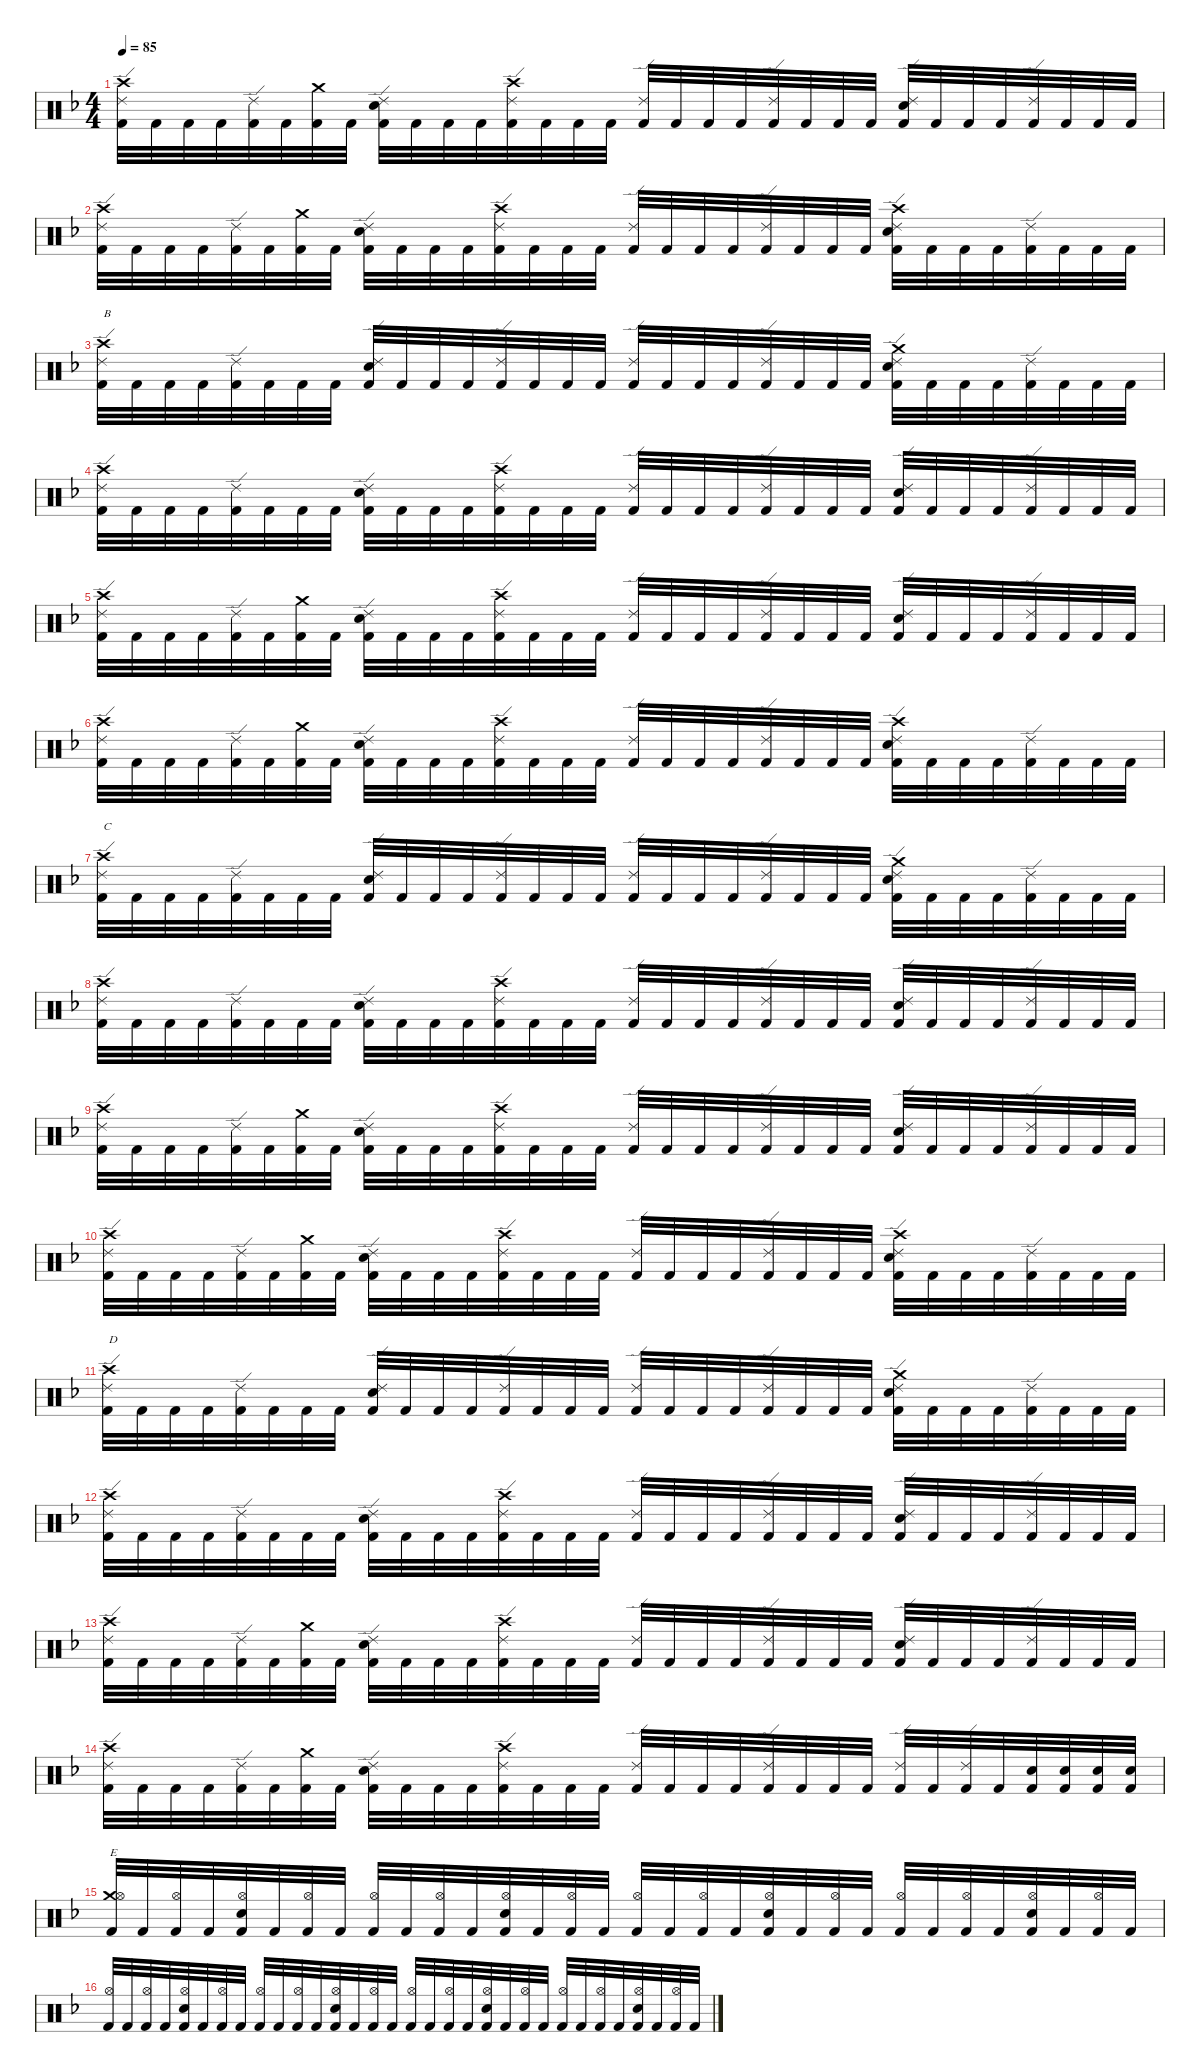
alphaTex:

\defaultSystemsLayout 4
\hideDynamics
\bracketExtendMode nobrackets
\singleTrackTrackNamePolicy hidden
\multiTrackTrackNamePolicy hidden
\firstSystemTrackNameMode fullname
\firstSystemTrackNameOrientation horizontal
\otherSystemsTrackNameOrientation horizontal
\track ("Martin Lopez - Drums" "drm.") {instrument percussion}
\staff {score}
\articulation defaults
\ts (4 4)
\tempo 85
\clef neutral
\ks f
("Crash high (hit)"{acc forcenatural} "Ride (edge) 2"{acc forcenatural} "Kick (hit) 2"{acc forcenatural}).32{dy f beam Down} "Kick (hit) 2"{acc forcenatural}.32{beam Down} "Kick (hit) 2"{acc forcenatural}.32{beam Down} "Kick (hit) 2"{acc forcenatural}.32{beam Down} ("Ride (edge) 2"{acc forcenatural} "Kick (hit) 2"{acc forcenatural}).32{beam Down} "Kick (hit) 2"{acc forcenatural}.32{beam Down} ("Crash medium (hit)"{acc forcenatural} "Kick (hit) 2"{acc forcenatural}).32{beam Down} "Kick (hit) 2"{acc forcenatural}.32{beam Down} ("Ride (edge) 2"{acc forcenatural} "Snare (hit) 2"{acc forcenatural} "Kick (hit) 2"{acc forcenatural}).32{beam Down} "Kick (hit) 2"{acc forcenatural}.32{beam Down} "Kick (hit) 2"{acc forcenatural}.32{beam Down} "Kick (hit) 2"{acc forcenatural}.32{beam Down} ("Crash high (hit)"{acc forcenatural} "Ride (edge) 2"{acc forcenatural} "Kick (hit) 2"{acc forcenatural}).32{beam Down} "Kick (hit) 2"{acc forcenatural}.32{beam Down} "Kick (hit) 2"{acc forcenatural}.32{beam Down} "Kick (hit) 2"{acc forcenatural}.32{beam Down} ("Ride (edge) 2"{acc forcenatural} "Kick (hit) 2"{acc forcenatural}).32{beam Up} "Kick (hit) 2"{acc forcenatural}.32{beam Up} "Kick (hit) 2"{acc forcenatural}.32{beam Up} "Kick (hit) 2"{acc forcenatural}.32{beam Up} ("Ride (edge) 2"{acc forcenatural} "Kick (hit) 2"{acc forcenatural}).32{beam Up} "Kick (hit) 2"{acc forcenatural}.32{beam Up} "Kick (hit) 2"{acc forcenatural}.32{beam Up} "Kick (hit) 2"{acc forcenatural}.32{beam Up} ("Ride (edge) 2"{acc forcenatural} "Snare (hit) 2"{acc forcenatural} "Kick (hit) 2"{acc forcenatural}).32{beam Up} "Kick (hit) 2"{acc forcenatural}.32{beam Up} "Kick (hit) 2"{acc forcenatural}.32{beam Up} "Kick (hit) 2"{acc forcenatural}.32{beam Up} ("Ride (edge) 2"{acc forcenatural} "Kick (hit) 2"{acc forcenatural}).32{beam Up} "Kick (hit) 2"{acc forcenatural}.32{beam Up} "Kick (hit) 2"{acc forcenatural}.32{beam Up} "Kick (hit) 2"{acc forcenatural}.32{beam Up} |
("Crash high (hit)"{acc forcenatural} "Ride (edge) 2"{acc forcenatural} "Kick (hit) 2"{acc forcenatural}).32{beam Down} "Kick (hit) 2"{acc forcenatural}.32{beam Down} "Kick (hit) 2"{acc forcenatural}.32{beam Down} "Kick (hit) 2"{acc forcenatural}.32{beam Down} ("Ride (edge) 2"{acc forcenatural} "Kick (hit) 2"{acc forcenatural}).32{beam Down} "Kick (hit) 2"{acc forcenatural}.32{beam Down} ("Crash medium (hit)"{acc forcenatural} "Kick (hit) 2"{acc forcenatural}).32{beam Down} "Kick (hit) 2"{acc forcenatural}.32{beam Down} ("Ride (edge) 2"{acc forcenatural} "Snare (hit) 2"{acc forcenatural} "Kick (hit) 2"{acc forcenatural}).32{beam Down} "Kick (hit) 2"{acc forcenatural}.32{beam Down} "Kick (hit) 2"{acc forcenatural}.32{beam Down} "Kick (hit) 2"{acc forcenatural}.32{beam Down} ("Crash high (hit)"{acc forcenatural} "Ride (edge) 2"{acc forcenatural} "Kick (hit) 2"{acc forcenatural}).32{beam Down} "Kick (hit) 2"{acc forcenatural}.32{beam Down} "Kick (hit) 2"{acc forcenatural}.32{beam Down} "Kick (hit) 2"{acc forcenatural}.32{beam Down} ("Ride (edge) 2"{acc forcenatural} "Kick (hit) 2"{acc forcenatural}).32{beam Up} "Kick (hit) 2"{acc forcenatural}.32{beam Up} "Kick (hit) 2"{acc forcenatural}.32{beam Up} "Kick (hit) 2"{acc forcenatural}.32{beam Up} ("Ride (edge) 2"{acc forcenatural} "Kick (hit) 2"{acc forcenatural}).32{beam Up} "Kick (hit) 2"{acc forcenatural}.32{beam Up} "Kick (hit) 2"{acc forcenatural}.32{beam Up} "Kick (hit) 2"{acc forcenatural}.32{beam Up} ("Crash high (hit)"{acc forcenatural} "Ride (edge) 2"{acc forcenatural} "Snare (hit) 2"{acc forcenatural} "Kick (hit) 2"{acc forcenatural}).32{beam Down} "Kick (hit) 2"{acc forcenatural}.32{beam Down} "Kick (hit) 2"{acc forcenatural}.32{beam Down} "Kick (hit) 2"{acc forcenatural}.32{beam Down} ("Ride (edge) 2"{acc forcenatural} "Kick (hit) 2"{acc forcenatural}).32{beam Down} "Kick (hit) 2"{acc forcenatural}.32{beam Down} "Kick (hit) 2"{acc forcenatural}.32{beam Down} "Kick (hit) 2"{acc forcenatural}.32{beam Down} |
("Crash high (hit)"{acc forcenatural} "Ride (edge) 2"{acc forcenatural} "Kick (hit) 2"{acc forcenatural}).32{txt "B" beam Down} "Kick (hit) 2"{acc forcenatural}.32{beam Down} "Kick (hit) 2"{acc forcenatural}.32{beam Down} "Kick (hit) 2"{acc forcenatural}.32{beam Down} ("Ride (edge) 2"{acc forcenatural} "Kick (hit) 2"{acc forcenatural}).32{beam Down} "Kick (hit) 2"{acc forcenatural}.32{beam Down} "Kick (hit) 2"{acc forcenatural}.32{beam Down} "Kick (hit) 2"{acc forcenatural}.32{beam Down} ("Ride (edge) 2"{acc forcenatural} "Snare (hit) 2"{acc forcenatural} "Kick (hit) 2"{acc forcenatural}).32{beam Up} "Kick (hit) 2"{acc forcenatural}.32{beam Up} "Kick (hit) 2"{acc forcenatural}.32{beam Up} "Kick (hit) 2"{acc forcenatural}.32{beam Up} ("Ride (edge) 2"{acc forcenatural} "Kick (hit) 2"{acc forcenatural}).32{beam Up} "Kick (hit) 2"{acc forcenatural}.32{beam Up} "Kick (hit) 2"{acc forcenatural}.32{beam Up} "Kick (hit) 2"{acc forcenatural}.32{beam Up} ("Ride (edge) 2"{acc forcenatural} "Kick (hit) 2"{acc forcenatural}).32{beam Up} "Kick (hit) 2"{acc forcenatural}.32{beam Up} "Kick (hit) 2"{acc forcenatural}.32{beam Up} "Kick (hit) 2"{acc forcenatural}.32{beam Up} ("Ride (edge) 2"{acc forcenatural} "Kick (hit) 2"{acc forcenatural}).32{beam Up} "Kick (hit) 2"{acc forcenatural}.32{beam Up} "Kick (hit) 2"{acc forcenatural}.32{beam Up} "Kick (hit) 2"{acc forcenatural}.32{beam Up} ("Crash medium (hit)"{acc forcenatural} "Ride (edge) 2"{acc forcenatural} "Snare (hit) 2"{acc forcenatural} "Kick (hit) 2"{acc forcenatural}).32{beam Down} "Kick (hit) 2"{acc forcenatural}.32{beam Down} "Kick (hit) 2"{acc forcenatural}.32{beam Down} "Kick (hit) 2"{acc forcenatural}.32{beam Down} ("Ride (edge) 2"{acc forcenatural} "Kick (hit) 2"{acc forcenatural}).32{beam Down} "Kick (hit) 2"{acc forcenatural}.32{beam Down} "Kick (hit) 2"{acc forcenatural}.32{beam Down} "Kick (hit) 2"{acc forcenatural}.32{beam Down} |
("Crash high (hit)"{acc forcenatural} "Ride (edge) 2"{acc forcenatural} "Kick (hit) 2"{acc forcenatural}).32{beam Down} "Kick (hit) 2"{acc forcenatural}.32{beam Down} "Kick (hit) 2"{acc forcenatural}.32{beam Down} "Kick (hit) 2"{acc forcenatural}.32{beam Down} ("Ride (edge) 2"{acc forcenatural} "Kick (hit) 2"{acc forcenatural}).32{beam Down} "Kick (hit) 2"{acc forcenatural}.32{beam Down} "Kick (hit) 2"{acc forcenatural}.32{beam Down} "Kick (hit) 2"{acc forcenatural}.32{beam Down} ("Ride (edge) 2"{acc forcenatural} "Snare (hit) 2"{acc forcenatural} "Kick (hit) 2"{acc forcenatural}).32{beam Down} "Kick (hit) 2"{acc forcenatural}.32{beam Down} "Kick (hit) 2"{acc forcenatural}.32{beam Down} "Kick (hit) 2"{acc forcenatural}.32{beam Down} ("Crash high (hit)"{acc forcenatural} "Ride (edge) 2"{acc forcenatural} "Kick (hit) 2"{acc forcenatural}).32{beam Down} "Kick (hit) 2"{acc forcenatural}.32{beam Down} "Kick (hit) 2"{acc forcenatural}.32{beam Down} "Kick (hit) 2"{acc forcenatural}.32{beam Down} ("Ride (edge) 2"{acc forcenatural} "Kick (hit) 2"{acc forcenatural}).32{beam Up} "Kick (hit) 2"{acc forcenatural}.32{beam Up} "Kick (hit) 2"{acc forcenatural}.32{beam Up} "Kick (hit) 2"{acc forcenatural}.32{beam Up} ("Ride (edge) 2"{acc forcenatural} "Kick (hit) 2"{acc forcenatural}).32{beam Up} "Kick (hit) 2"{acc forcenatural}.32{beam Up} "Kick (hit) 2"{acc forcenatural}.32{beam Up} "Kick (hit) 2"{acc forcenatural}.32{beam Up} ("Ride (edge) 2"{acc forcenatural} "Snare (hit) 2"{acc forcenatural} "Kick (hit) 2"{acc forcenatural}).32{beam Up} "Kick (hit) 2"{acc forcenatural}.32{beam Up} "Kick (hit) 2"{acc forcenatural}.32{beam Up} "Kick (hit) 2"{acc forcenatural}.32{beam Up} ("Ride (edge) 2"{acc forcenatural} "Kick (hit) 2"{acc forcenatural}).32{beam Up} "Kick (hit) 2"{acc forcenatural}.32{beam Up} "Kick (hit) 2"{acc forcenatural}.32{beam Up} "Kick (hit) 2"{acc forcenatural}.32{beam Up} |
("Crash high (hit)"{acc forcenatural} "Ride (edge) 2"{acc forcenatural} "Kick (hit) 2"{acc forcenatural}).32{beam Down} "Kick (hit) 2"{acc forcenatural}.32{beam Down} "Kick (hit) 2"{acc forcenatural}.32{beam Down} "Kick (hit) 2"{acc forcenatural}.32{beam Down} ("Ride (edge) 2"{acc forcenatural} "Kick (hit) 2"{acc forcenatural}).32{beam Down} "Kick (hit) 2"{acc forcenatural}.32{beam Down} ("Crash medium (hit)"{acc forcenatural} "Kick (hit) 2"{acc forcenatural}).32{beam Down} "Kick (hit) 2"{acc forcenatural}.32{beam Down} ("Ride (edge) 2"{acc forcenatural} "Snare (hit) 2"{acc forcenatural} "Kick (hit) 2"{acc forcenatural}).32{beam Down} "Kick (hit) 2"{acc forcenatural}.32{beam Down} "Kick (hit) 2"{acc forcenatural}.32{beam Down} "Kick (hit) 2"{acc forcenatural}.32{beam Down} ("Crash high (hit)"{acc forcenatural} "Ride (edge) 2"{acc forcenatural} "Kick (hit) 2"{acc forcenatural}).32{beam Down} "Kick (hit) 2"{acc forcenatural}.32{beam Down} "Kick (hit) 2"{acc forcenatural}.32{beam Down} "Kick (hit) 2"{acc forcenatural}.32{beam Down} ("Ride (edge) 2"{acc forcenatural} "Kick (hit) 2"{acc forcenatural}).32{beam Up} "Kick (hit) 2"{acc forcenatural}.32{beam Up} "Kick (hit) 2"{acc forcenatural}.32{beam Up} "Kick (hit) 2"{acc forcenatural}.32{beam Up} ("Ride (edge) 2"{acc forcenatural} "Kick (hit) 2"{acc forcenatural}).32{beam Up} "Kick (hit) 2"{acc forcenatural}.32{beam Up} "Kick (hit) 2"{acc forcenatural}.32{beam Up} "Kick (hit) 2"{acc forcenatural}.32{beam Up} ("Ride (edge) 2"{acc forcenatural} "Snare (hit) 2"{acc forcenatural} "Kick (hit) 2"{acc forcenatural}).32{beam Up} "Kick (hit) 2"{acc forcenatural}.32{beam Up} "Kick (hit) 2"{acc forcenatural}.32{beam Up} "Kick (hit) 2"{acc forcenatural}.32{beam Up} ("Ride (edge) 2"{acc forcenatural} "Kick (hit) 2"{acc forcenatural}).32{beam Up} "Kick (hit) 2"{acc forcenatural}.32{beam Up} "Kick (hit) 2"{acc forcenatural}.32{beam Up} "Kick (hit) 2"{acc forcenatural}.32{beam Up} |
("Crash high (hit)"{acc forcenatural} "Ride (edge) 2"{acc forcenatural} "Kick (hit) 2"{acc forcenatural}).32{beam Down} "Kick (hit) 2"{acc forcenatural}.32{beam Down} "Kick (hit) 2"{acc forcenatural}.32{beam Down} "Kick (hit) 2"{acc forcenatural}.32{beam Down} ("Ride (edge) 2"{acc forcenatural} "Kick (hit) 2"{acc forcenatural}).32{beam Down} "Kick (hit) 2"{acc forcenatural}.32{beam Down} ("Crash medium (hit)"{acc forcenatural} "Kick (hit) 2"{acc forcenatural}).32{beam Down} "Kick (hit) 2"{acc forcenatural}.32{beam Down} ("Ride (edge) 2"{acc forcenatural} "Snare (hit) 2"{acc forcenatural} "Kick (hit) 2"{acc forcenatural}).32{beam Down} "Kick (hit) 2"{acc forcenatural}.32{beam Down} "Kick (hit) 2"{acc forcenatural}.32{beam Down} "Kick (hit) 2"{acc forcenatural}.32{beam Down} ("Crash high (hit)"{acc forcenatural} "Ride (edge) 2"{acc forcenatural} "Kick (hit) 2"{acc forcenatural}).32{beam Down} "Kick (hit) 2"{acc forcenatural}.32{beam Down} "Kick (hit) 2"{acc forcenatural}.32{beam Down} "Kick (hit) 2"{acc forcenatural}.32{beam Down} ("Ride (edge) 2"{acc forcenatural} "Kick (hit) 2"{acc forcenatural}).32{beam Up} "Kick (hit) 2"{acc forcenatural}.32{beam Up} "Kick (hit) 2"{acc forcenatural}.32{beam Up} "Kick (hit) 2"{acc forcenatural}.32{beam Up} ("Ride (edge) 2"{acc forcenatural} "Kick (hit) 2"{acc forcenatural}).32{beam Up} "Kick (hit) 2"{acc forcenatural}.32{beam Up} "Kick (hit) 2"{acc forcenatural}.32{beam Up} "Kick (hit) 2"{acc forcenatural}.32{beam Up} ("Crash high (hit)"{acc forcenatural} "Ride (edge) 2"{acc forcenatural} "Snare (hit) 2"{acc forcenatural} "Kick (hit) 2"{acc forcenatural}).32{beam Down} "Kick (hit) 2"{acc forcenatural}.32{beam Down} "Kick (hit) 2"{acc forcenatural}.32{beam Down} "Kick (hit) 2"{acc forcenatural}.32{beam Down} ("Ride (edge) 2"{acc forcenatural} "Kick (hit) 2"{acc forcenatural}).32{beam Down} "Kick (hit) 2"{acc forcenatural}.32{beam Down} "Kick (hit) 2"{acc forcenatural}.32{beam Down} "Kick (hit) 2"{acc forcenatural}.32{beam Down} |
("Crash high (hit)"{acc forcenatural} "Ride (edge) 2"{acc forcenatural} "Kick (hit) 2"{acc forcenatural}).32{txt "C" beam Down} "Kick (hit) 2"{acc forcenatural}.32{beam Down} "Kick (hit) 2"{acc forcenatural}.32{beam Down} "Kick (hit) 2"{acc forcenatural}.32{beam Down} ("Ride (edge) 2"{acc forcenatural} "Kick (hit) 2"{acc forcenatural}).32{beam Down} "Kick (hit) 2"{acc forcenatural}.32{beam Down} "Kick (hit) 2"{acc forcenatural}.32{beam Down} "Kick (hit) 2"{acc forcenatural}.32{beam Down} ("Ride (edge) 2"{acc forcenatural} "Snare (hit) 2"{acc forcenatural} "Kick (hit) 2"{acc forcenatural}).32{beam Up} "Kick (hit) 2"{acc forcenatural}.32{beam Up} "Kick (hit) 2"{acc forcenatural}.32{beam Up} "Kick (hit) 2"{acc forcenatural}.32{beam Up} ("Ride (edge) 2"{acc forcenatural} "Kick (hit) 2"{acc forcenatural}).32{beam Up} "Kick (hit) 2"{acc forcenatural}.32{beam Up} "Kick (hit) 2"{acc forcenatural}.32{beam Up} "Kick (hit) 2"{acc forcenatural}.32{beam Up} ("Ride (edge) 2"{acc forcenatural} "Kick (hit) 2"{acc forcenatural}).32{beam Up} "Kick (hit) 2"{acc forcenatural}.32{beam Up} "Kick (hit) 2"{acc forcenatural}.32{beam Up} "Kick (hit) 2"{acc forcenatural}.32{beam Up} ("Ride (edge) 2"{acc forcenatural} "Kick (hit) 2"{acc forcenatural}).32{beam Up} "Kick (hit) 2"{acc forcenatural}.32{beam Up} "Kick (hit) 2"{acc forcenatural}.32{beam Up} "Kick (hit) 2"{acc forcenatural}.32{beam Up} ("Crash medium (hit)"{acc forcenatural} "Ride (edge) 2"{acc forcenatural} "Snare (hit) 2"{acc forcenatural} "Kick (hit) 2"{acc forcenatural}).32{beam Down} "Kick (hit) 2"{acc forcenatural}.32{beam Down} "Kick (hit) 2"{acc forcenatural}.32{beam Down} "Kick (hit) 2"{acc forcenatural}.32{beam Down} ("Ride (edge) 2"{acc forcenatural} "Kick (hit) 2"{acc forcenatural}).32{beam Down} "Kick (hit) 2"{acc forcenatural}.32{beam Down} "Kick (hit) 2"{acc forcenatural}.32{beam Down} "Kick (hit) 2"{acc forcenatural}.32{beam Down} |
("Crash high (hit)"{acc forcenatural} "Ride (edge) 2"{acc forcenatural} "Kick (hit) 2"{acc forcenatural}).32{beam Down} "Kick (hit) 2"{acc forcenatural}.32{beam Down} "Kick (hit) 2"{acc forcenatural}.32{beam Down} "Kick (hit) 2"{acc forcenatural}.32{beam Down} ("Ride (edge) 2"{acc forcenatural} "Kick (hit) 2"{acc forcenatural}).32{beam Down} "Kick (hit) 2"{acc forcenatural}.32{beam Down} "Kick (hit) 2"{acc forcenatural}.32{beam Down} "Kick (hit) 2"{acc forcenatural}.32{beam Down} ("Ride (edge) 2"{acc forcenatural} "Snare (hit) 2"{acc forcenatural} "Kick (hit) 2"{acc forcenatural}).32{beam Down} "Kick (hit) 2"{acc forcenatural}.32{beam Down} "Kick (hit) 2"{acc forcenatural}.32{beam Down} "Kick (hit) 2"{acc forcenatural}.32{beam Down} ("Crash high (hit)"{acc forcenatural} "Ride (edge) 2"{acc forcenatural} "Kick (hit) 2"{acc forcenatural}).32{beam Down} "Kick (hit) 2"{acc forcenatural}.32{beam Down} "Kick (hit) 2"{acc forcenatural}.32{beam Down} "Kick (hit) 2"{acc forcenatural}.32{beam Down} ("Ride (edge) 2"{acc forcenatural} "Kick (hit) 2"{acc forcenatural}).32{beam Up} "Kick (hit) 2"{acc forcenatural}.32{beam Up} "Kick (hit) 2"{acc forcenatural}.32{beam Up} "Kick (hit) 2"{acc forcenatural}.32{beam Up} ("Ride (edge) 2"{acc forcenatural} "Kick (hit) 2"{acc forcenatural}).32{beam Up} "Kick (hit) 2"{acc forcenatural}.32{beam Up} "Kick (hit) 2"{acc forcenatural}.32{beam Up} "Kick (hit) 2"{acc forcenatural}.32{beam Up} ("Ride (edge) 2"{acc forcenatural} "Snare (hit) 2"{acc forcenatural} "Kick (hit) 2"{acc forcenatural}).32{beam Up} "Kick (hit) 2"{acc forcenatural}.32{beam Up} "Kick (hit) 2"{acc forcenatural}.32{beam Up} "Kick (hit) 2"{acc forcenatural}.32{beam Up} ("Ride (edge) 2"{acc forcenatural} "Kick (hit) 2"{acc forcenatural}).32{beam Up} "Kick (hit) 2"{acc forcenatural}.32{beam Up} "Kick (hit) 2"{acc forcenatural}.32{beam Up} "Kick (hit) 2"{acc forcenatural}.32{beam Up} |
("Crash high (hit)"{acc forcenatural} "Ride (edge) 2"{acc forcenatural} "Kick (hit) 2"{acc forcenatural}).32{beam Down} "Kick (hit) 2"{acc forcenatural}.32{beam Down} "Kick (hit) 2"{acc forcenatural}.32{beam Down} "Kick (hit) 2"{acc forcenatural}.32{beam Down} ("Ride (edge) 2"{acc forcenatural} "Kick (hit) 2"{acc forcenatural}).32{beam Down} "Kick (hit) 2"{acc forcenatural}.32{beam Down} ("Crash medium (hit)"{acc forcenatural} "Kick (hit) 2"{acc forcenatural}).32{beam Down} "Kick (hit) 2"{acc forcenatural}.32{beam Down} ("Ride (edge) 2"{acc forcenatural} "Snare (hit) 2"{acc forcenatural} "Kick (hit) 2"{acc forcenatural}).32{beam Down} "Kick (hit) 2"{acc forcenatural}.32{beam Down} "Kick (hit) 2"{acc forcenatural}.32{beam Down} "Kick (hit) 2"{acc forcenatural}.32{beam Down} ("Crash high (hit)"{acc forcenatural} "Ride (edge) 2"{acc forcenatural} "Kick (hit) 2"{acc forcenatural}).32{beam Down} "Kick (hit) 2"{acc forcenatural}.32{beam Down} "Kick (hit) 2"{acc forcenatural}.32{beam Down} "Kick (hit) 2"{acc forcenatural}.32{beam Down} ("Ride (edge) 2"{acc forcenatural} "Kick (hit) 2"{acc forcenatural}).32{beam Up} "Kick (hit) 2"{acc forcenatural}.32{beam Up} "Kick (hit) 2"{acc forcenatural}.32{beam Up} "Kick (hit) 2"{acc forcenatural}.32{beam Up} ("Ride (edge) 2"{acc forcenatural} "Kick (hit) 2"{acc forcenatural}).32{beam Up} "Kick (hit) 2"{acc forcenatural}.32{beam Up} "Kick (hit) 2"{acc forcenatural}.32{beam Up} "Kick (hit) 2"{acc forcenatural}.32{beam Up} ("Ride (edge) 2"{acc forcenatural} "Snare (hit) 2"{acc forcenatural} "Kick (hit) 2"{acc forcenatural}).32{beam Up} "Kick (hit) 2"{acc forcenatural}.32{beam Up} "Kick (hit) 2"{acc forcenatural}.32{beam Up} "Kick (hit) 2"{acc forcenatural}.32{beam Up} ("Ride (edge) 2"{acc forcenatural} "Kick (hit) 2"{acc forcenatural}).32{beam Up} "Kick (hit) 2"{acc forcenatural}.32{beam Up} "Kick (hit) 2"{acc forcenatural}.32{beam Up} "Kick (hit) 2"{acc forcenatural}.32{beam Up} |
("Crash high (hit)"{acc forcenatural} "Ride (edge) 2"{acc forcenatural} "Kick (hit) 2"{acc forcenatural}).32{beam Down} "Kick (hit) 2"{acc forcenatural}.32{beam Down} "Kick (hit) 2"{acc forcenatural}.32{beam Down} "Kick (hit) 2"{acc forcenatural}.32{beam Down} ("Ride (edge) 2"{acc forcenatural} "Kick (hit) 2"{acc forcenatural}).32{beam Down} "Kick (hit) 2"{acc forcenatural}.32{beam Down} ("Crash medium (hit)"{acc forcenatural} "Kick (hit) 2"{acc forcenatural}).32{beam Down} "Kick (hit) 2"{acc forcenatural}.32{beam Down} ("Ride (edge) 2"{acc forcenatural} "Snare (hit) 2"{acc forcenatural} "Kick (hit) 2"{acc forcenatural}).32{beam Down} "Kick (hit) 2"{acc forcenatural}.32{beam Down} "Kick (hit) 2"{acc forcenatural}.32{beam Down} "Kick (hit) 2"{acc forcenatural}.32{beam Down} ("Crash high (hit)"{acc forcenatural} "Ride (edge) 2"{acc forcenatural} "Kick (hit) 2"{acc forcenatural}).32{beam Down} "Kick (hit) 2"{acc forcenatural}.32{beam Down} "Kick (hit) 2"{acc forcenatural}.32{beam Down} "Kick (hit) 2"{acc forcenatural}.32{beam Down} ("Ride (edge) 2"{acc forcenatural} "Kick (hit) 2"{acc forcenatural}).32{beam Up} "Kick (hit) 2"{acc forcenatural}.32{beam Up} "Kick (hit) 2"{acc forcenatural}.32{beam Up} "Kick (hit) 2"{acc forcenatural}.32{beam Up} ("Ride (edge) 2"{acc forcenatural} "Kick (hit) 2"{acc forcenatural}).32{beam Up} "Kick (hit) 2"{acc forcenatural}.32{beam Up} "Kick (hit) 2"{acc forcenatural}.32{beam Up} "Kick (hit) 2"{acc forcenatural}.32{beam Up} ("Crash high (hit)"{acc forcenatural} "Ride (edge) 2"{acc forcenatural} "Snare (hit) 2"{acc forcenatural} "Kick (hit) 2"{acc forcenatural}).32{beam Down} "Kick (hit) 2"{acc forcenatural}.32{beam Down} "Kick (hit) 2"{acc forcenatural}.32{beam Down} "Kick (hit) 2"{acc forcenatural}.32{beam Down} ("Ride (edge) 2"{acc forcenatural} "Kick (hit) 2"{acc forcenatural}).32{beam Down} "Kick (hit) 2"{acc forcenatural}.32{beam Down} "Kick (hit) 2"{acc forcenatural}.32{beam Down} "Kick (hit) 2"{acc forcenatural}.32{beam Down} |
("Crash high (hit)"{acc forcenatural} "Ride (edge) 2"{acc forcenatural} "Kick (hit) 2"{acc forcenatural}).32{txt "D" beam Down} "Kick (hit) 2"{acc forcenatural}.32{beam Down} "Kick (hit) 2"{acc forcenatural}.32{beam Down} "Kick (hit) 2"{acc forcenatural}.32{beam Down} ("Ride (edge) 2"{acc forcenatural} "Kick (hit) 2"{acc forcenatural}).32{beam Down} "Kick (hit) 2"{acc forcenatural}.32{beam Down} "Kick (hit) 2"{acc forcenatural}.32{beam Down} "Kick (hit) 2"{acc forcenatural}.32{beam Down} ("Ride (edge) 2"{acc forcenatural} "Snare (hit) 2"{acc forcenatural} "Kick (hit) 2"{acc forcenatural}).32{beam Up} "Kick (hit) 2"{acc forcenatural}.32{beam Up} "Kick (hit) 2"{acc forcenatural}.32{beam Up} "Kick (hit) 2"{acc forcenatural}.32{beam Up} ("Ride (edge) 2"{acc forcenatural} "Kick (hit) 2"{acc forcenatural}).32{beam Up} "Kick (hit) 2"{acc forcenatural}.32{beam Up} "Kick (hit) 2"{acc forcenatural}.32{beam Up} "Kick (hit) 2"{acc forcenatural}.32{beam Up} ("Ride (edge) 2"{acc forcenatural} "Kick (hit) 2"{acc forcenatural}).32{beam Up} "Kick (hit) 2"{acc forcenatural}.32{beam Up} "Kick (hit) 2"{acc forcenatural}.32{beam Up} "Kick (hit) 2"{acc forcenatural}.32{beam Up} ("Ride (edge) 2"{acc forcenatural} "Kick (hit) 2"{acc forcenatural}).32{beam Up} "Kick (hit) 2"{acc forcenatural}.32{beam Up} "Kick (hit) 2"{acc forcenatural}.32{beam Up} "Kick (hit) 2"{acc forcenatural}.32{beam Up} ("Crash medium (hit)"{acc forcenatural} "Ride (edge) 2"{acc forcenatural} "Snare (hit) 2"{acc forcenatural} "Kick (hit) 2"{acc forcenatural}).32{beam Down} "Kick (hit) 2"{acc forcenatural}.32{beam Down} "Kick (hit) 2"{acc forcenatural}.32{beam Down} "Kick (hit) 2"{acc forcenatural}.32{beam Down} ("Ride (edge) 2"{acc forcenatural} "Kick (hit) 2"{acc forcenatural}).32{beam Down} "Kick (hit) 2"{acc forcenatural}.32{beam Down} "Kick (hit) 2"{acc forcenatural}.32{beam Down} "Kick (hit) 2"{acc forcenatural}.32{beam Down} |
("Crash high (hit)"{acc forcenatural} "Ride (edge) 2"{acc forcenatural} "Kick (hit) 2"{acc forcenatural}).32{beam Down} "Kick (hit) 2"{acc forcenatural}.32{beam Down} "Kick (hit) 2"{acc forcenatural}.32{beam Down} "Kick (hit) 2"{acc forcenatural}.32{beam Down} ("Ride (edge) 2"{acc forcenatural} "Kick (hit) 2"{acc forcenatural}).32{beam Down} "Kick (hit) 2"{acc forcenatural}.32{beam Down} "Kick (hit) 2"{acc forcenatural}.32{beam Down} "Kick (hit) 2"{acc forcenatural}.32{beam Down} ("Ride (edge) 2"{acc forcenatural} "Snare (hit) 2"{acc forcenatural} "Kick (hit) 2"{acc forcenatural}).32{beam Down} "Kick (hit) 2"{acc forcenatural}.32{beam Down} "Kick (hit) 2"{acc forcenatural}.32{beam Down} "Kick (hit) 2"{acc forcenatural}.32{beam Down} ("Crash high (hit)"{acc forcenatural} "Ride (edge) 2"{acc forcenatural} "Kick (hit) 2"{acc forcenatural}).32{beam Down} "Kick (hit) 2"{acc forcenatural}.32{beam Down} "Kick (hit) 2"{acc forcenatural}.32{beam Down} "Kick (hit) 2"{acc forcenatural}.32{beam Down} ("Ride (edge) 2"{acc forcenatural} "Kick (hit) 2"{acc forcenatural}).32{beam Up} "Kick (hit) 2"{acc forcenatural}.32{beam Up} "Kick (hit) 2"{acc forcenatural}.32{beam Up} "Kick (hit) 2"{acc forcenatural}.32{beam Up} ("Ride (edge) 2"{acc forcenatural} "Kick (hit) 2"{acc forcenatural}).32{beam Up} "Kick (hit) 2"{acc forcenatural}.32{beam Up} "Kick (hit) 2"{acc forcenatural}.32{beam Up} "Kick (hit) 2"{acc forcenatural}.32{beam Up} ("Ride (edge) 2"{acc forcenatural} "Snare (hit) 2"{acc forcenatural} "Kick (hit) 2"{acc forcenatural}).32{beam Up} "Kick (hit) 2"{acc forcenatural}.32{beam Up} "Kick (hit) 2"{acc forcenatural}.32{beam Up} "Kick (hit) 2"{acc forcenatural}.32{beam Up} ("Ride (edge) 2"{acc forcenatural} "Kick (hit) 2"{acc forcenatural}).32{beam Up} "Kick (hit) 2"{acc forcenatural}.32{beam Up} "Kick (hit) 2"{acc forcenatural}.32{beam Up} "Kick (hit) 2"{acc forcenatural}.32{beam Up} |
("Crash high (hit)"{acc forcenatural} "Ride (edge) 2"{acc forcenatural} "Kick (hit) 2"{acc forcenatural}).32{beam Down} "Kick (hit) 2"{acc forcenatural}.32{beam Down} "Kick (hit) 2"{acc forcenatural}.32{beam Down} "Kick (hit) 2"{acc forcenatural}.32{beam Down} ("Ride (edge) 2"{acc forcenatural} "Kick (hit) 2"{acc forcenatural}).32{beam Down} "Kick (hit) 2"{acc forcenatural}.32{beam Down} ("Crash medium (hit)"{acc forcenatural} "Kick (hit) 2"{acc forcenatural}).32{beam Down} "Kick (hit) 2"{acc forcenatural}.32{beam Down} ("Ride (edge) 2"{acc forcenatural} "Snare (hit) 2"{acc forcenatural} "Kick (hit) 2"{acc forcenatural}).32{beam Down} "Kick (hit) 2"{acc forcenatural}.32{beam Down} "Kick (hit) 2"{acc forcenatural}.32{beam Down} "Kick (hit) 2"{acc forcenatural}.32{beam Down} ("Crash high (hit)"{acc forcenatural} "Ride (edge) 2"{acc forcenatural} "Kick (hit) 2"{acc forcenatural}).32{beam Down} "Kick (hit) 2"{acc forcenatural}.32{beam Down} "Kick (hit) 2"{acc forcenatural}.32{beam Down} "Kick (hit) 2"{acc forcenatural}.32{beam Down} ("Ride (edge) 2"{acc forcenatural} "Kick (hit) 2"{acc forcenatural}).32{beam Up} "Kick (hit) 2"{acc forcenatural}.32{beam Up} "Kick (hit) 2"{acc forcenatural}.32{beam Up} "Kick (hit) 2"{acc forcenatural}.32{beam Up} ("Ride (edge) 2"{acc forcenatural} "Kick (hit) 2"{acc forcenatural}).32{beam Up} "Kick (hit) 2"{acc forcenatural}.32{beam Up} "Kick (hit) 2"{acc forcenatural}.32{beam Up} "Kick (hit) 2"{acc forcenatural}.32{beam Up} ("Ride (edge) 2"{acc forcenatural} "Snare (hit) 2"{acc forcenatural} "Kick (hit) 2"{acc forcenatural}).32{beam Up} "Kick (hit) 2"{acc forcenatural}.32{beam Up} "Kick (hit) 2"{acc forcenatural}.32{beam Up} "Kick (hit) 2"{acc forcenatural}.32{beam Up} ("Ride (edge) 2"{acc forcenatural} "Kick (hit) 2"{acc forcenatural}).32{beam Up} "Kick (hit) 2"{acc forcenatural}.32{beam Up} "Kick (hit) 2"{acc forcenatural}.32{beam Up} "Kick (hit) 2"{acc forcenatural}.32{beam Up} |
("Crash high (hit)"{acc forcenatural} "Ride (edge) 2"{acc forcenatural} "Kick (hit) 2"{acc forcenatural}).32{beam Down} "Kick (hit) 2"{acc forcenatural}.32{beam Down} "Kick (hit) 2"{acc forcenatural}.32{beam Down} "Kick (hit) 2"{acc forcenatural}.32{beam Down} ("Ride (edge) 2"{acc forcenatural} "Kick (hit) 2"{acc forcenatural}).32{beam Down} "Kick (hit) 2"{acc forcenatural}.32{beam Down} ("Crash medium (hit)"{acc forcenatural} "Kick (hit) 2"{acc forcenatural}).32{beam Down} "Kick (hit) 2"{acc forcenatural}.32{beam Down} ("Ride (edge) 2"{acc forcenatural} "Snare (hit) 2"{acc forcenatural} "Kick (hit) 2"{acc forcenatural}).32{beam Down} "Kick (hit) 2"{acc forcenatural}.32{beam Down} "Kick (hit) 2"{acc forcenatural}.32{beam Down} "Kick (hit) 2"{acc forcenatural}.32{beam Down} ("Crash high (hit)"{acc forcenatural} "Ride (edge) 2"{acc forcenatural} "Kick (hit) 2"{acc forcenatural}).32{beam Down} "Kick (hit) 2"{acc forcenatural}.32{beam Down} "Kick (hit) 2"{acc forcenatural}.32{beam Down} "Kick (hit) 2"{acc forcenatural}.32{beam Down} ("Ride (edge) 2"{acc forcenatural} "Kick (hit) 2"{acc forcenatural}).32{beam Up} "Kick (hit) 2"{acc forcenatural}.32{beam Up} "Kick (hit) 2"{acc forcenatural}.32{beam Up} "Kick (hit) 2"{acc forcenatural}.32{beam Up} ("Ride (edge) 2"{acc forcenatural} "Kick (hit) 2"{acc forcenatural}).32{beam Up} "Kick (hit) 2"{acc forcenatural}.32{beam Up} "Kick (hit) 2"{acc forcenatural}.32{beam Up} "Kick (hit) 2"{acc forcenatural}.32{beam Up} ("Ride (edge) 2"{acc forcenatural} "Kick (hit) 2"{acc forcenatural}).32{beam Up} "Kick (hit) 2"{acc forcenatural}.32{beam Up} ("Ride (edge) 2"{acc forcenatural} "Kick (hit) 2"{acc forcenatural}).32{beam Up} "Kick (hit) 2"{acc forcenatural}.32{beam Up} ("Snare (hit) 2"{acc forcenatural} "Kick (hit) 2"{acc forcenatural}).32{beam Up} ("Snare (hit) 2"{acc forcenatural} "Kick (hit) 2"{acc forcenatural}).32{beam Up} ("Snare (hit) 2"{acc forcenatural} "Kick (hit) 2"{acc forcenatural}).32{beam Up} ("Snare (hit) 2"{acc forcenatural} "Kick (hit) 2"{acc forcenatural}).32{beam Up} |
("Crash medium (hit)"{acc forcenatural} "Hi-Hat (open)"{acc forcenatural} "Kick (hit) 2"{acc forcenatural}).32{txt "E" beam Up} "Kick (hit) 2"{acc forcenatural}.32{beam Up} ("Hi-Hat (open)"{acc forcenatural} "Kick (hit) 2"{acc forcenatural}).32{beam Up} "Kick (hit) 2"{acc forcenatural}.32{beam Up} ("Hi-Hat (open)"{acc forcenatural} "Snare (hit) 2"{acc forcenatural} "Kick (hit) 2"{acc forcenatural}).32{beam Up} "Kick (hit) 2"{acc forcenatural}.32{beam Up} ("Hi-Hat (open)"{acc forcenatural} "Kick (hit) 2"{acc forcenatural}).32{beam Up} "Kick (hit) 2"{acc forcenatural}.32{beam Up} ("Hi-Hat (open)"{acc forcenatural} "Kick (hit) 2"{acc forcenatural}).32{beam Up} "Kick (hit) 2"{acc forcenatural}.32{beam Up} ("Hi-Hat (open)"{acc forcenatural} "Kick (hit) 2"{acc forcenatural}).32{beam Up} "Kick (hit) 2"{acc forcenatural}.32{beam Up} ("Hi-Hat (open)"{acc forcenatural} "Snare (hit) 2"{acc forcenatural} "Kick (hit) 2"{acc forcenatural}).32{beam Up} "Kick (hit) 2"{acc forcenatural}.32{beam Up} ("Hi-Hat (open)"{acc forcenatural} "Kick (hit) 2"{acc forcenatural}).32{beam Up} "Kick (hit) 2"{acc forcenatural}.32{beam Up} ("Hi-Hat (open)"{acc forcenatural} "Kick (hit) 2"{acc forcenatural}).32{beam Up} "Kick (hit) 2"{acc forcenatural}.32{beam Up} ("Hi-Hat (open)"{acc forcenatural} "Kick (hit) 2"{acc forcenatural}).32{beam Up} "Kick (hit) 2"{acc forcenatural}.32{beam Up} ("Hi-Hat (open)"{acc forcenatural} "Snare (hit) 2"{acc forcenatural} "Kick (hit) 2"{acc forcenatural}).32{beam Up} "Kick (hit) 2"{acc forcenatural}.32{beam Up} ("Hi-Hat (open)"{acc forcenatural} "Kick (hit) 2"{acc forcenatural}).32{beam Up} "Kick (hit) 2"{acc forcenatural}.32{beam Up} ("Hi-Hat (open)"{acc forcenatural} "Kick (hit) 2"{acc forcenatural}).32{beam Up} "Kick (hit) 2"{acc forcenatural}.32{beam Up} ("Hi-Hat (open)"{acc forcenatural} "Kick (hit) 2"{acc forcenatural}).32{beam Up} "Kick (hit) 2"{acc forcenatural}.32{beam Up} ("Hi-Hat (open)"{acc forcenatural} "Snare (hit) 2"{acc forcenatural} "Kick (hit) 2"{acc forcenatural}).32{beam Up} "Kick (hit) 2"{acc forcenatural}.32{beam Up} ("Hi-Hat (open)"{acc forcenatural} "Kick (hit) 2"{acc forcenatural}).32{beam Up} "Kick (hit) 2"{acc forcenatural}.32{beam Up} |
("Hi-Hat (open)"{acc forcenatural} "Kick (hit) 2"{acc forcenatural}).32{beam Up} "Kick (hit) 2"{acc forcenatural}.32{beam Up} ("Hi-Hat (open)"{acc forcenatural} "Kick (hit) 2"{acc forcenatural}).32{beam Up} "Kick (hit) 2"{acc forcenatural}.32{beam Up} ("Hi-Hat (open)"{acc forcenatural} "Snare (hit) 2"{acc forcenatural} "Kick (hit) 2"{acc forcenatural}).32{beam Up} "Kick (hit) 2"{acc forcenatural}.32{beam Up} ("Hi-Hat (open)"{acc forcenatural} "Kick (hit) 2"{acc forcenatural}).32{beam Up} "Kick (hit) 2"{acc forcenatural}.32{beam Up} ("Hi-Hat (open)"{acc forcenatural} "Kick (hit) 2"{acc forcenatural}).32{beam Up} "Kick (hit) 2"{acc forcenatural}.32{beam Up} ("Hi-Hat (open)"{acc forcenatural} "Kick (hit) 2"{acc forcenatural}).32{beam Up} "Kick (hit) 2"{acc forcenatural}.32{beam Up} ("Hi-Hat (open)"{acc forcenatural} "Snare (hit) 2"{acc forcenatural} "Kick (hit) 2"{acc forcenatural}).32{beam Up} "Kick (hit) 2"{acc forcenatural}.32{beam Up} ("Hi-Hat (open)"{acc forcenatural} "Kick (hit) 2"{acc forcenatural}).32{beam Up} "Kick (hit) 2"{acc forcenatural}.32{beam Up} ("Hi-Hat (open)"{acc forcenatural} "Kick (hit) 2"{acc forcenatural}).32{beam Up} "Kick (hit) 2"{acc forcenatural}.32{beam Up} ("Hi-Hat (open)"{acc forcenatural} "Kick (hit) 2"{acc forcenatural}).32{beam Up} "Kick (hit) 2"{acc forcenatural}.32{beam Up} ("Hi-Hat (open)"{acc forcenatural} "Snare (hit) 2"{acc forcenatural} "Kick (hit) 2"{acc forcenatural}).32{beam Up} "Kick (hit) 2"{acc forcenatural}.32{beam Up} ("Hi-Hat (open)"{acc forcenatural} "Kick (hit) 2"{acc forcenatural}).32{beam Up} "Kick (hit) 2"{acc forcenatural}.32{beam Up} ("Hi-Hat (open)"{acc forcenatural} "Kick (hit) 2"{acc forcenatural}).32{beam Up} "Kick (hit) 2"{acc forcenatural}.32{beam Up} ("Hi-Hat (open)"{acc forcenatural} "Kick (hit) 2"{acc forcenatural}).32{beam Up} "Kick (hit) 2"{acc forcenatural}.32{beam Up} ("Hi-Hat (open)"{acc forcenatural} "Snare (hit) 2"{acc forcenatural} "Kick (hit) 2"{acc forcenatural}).32{beam Up} "Kick (hit) 2"{acc forcenatural}.32{beam Up} ("Hi-Hat (open)"{acc forcenatural} "Kick (hit) 2"{acc forcenatural}).32{beam Up} "Kick (hit) 2"{acc forcenatural}.32{beam Up}
